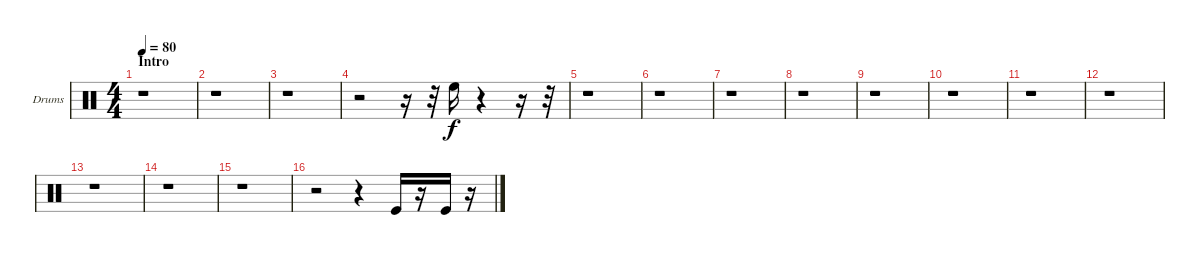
\bracketExtendMode groupsimilarinstruments
\firstSystemTrackNameOrientation horizontal
\otherSystemsTrackNameOrientation horizontal
\track ("Drumkit" "Drums") {instrument percussion}
\staff {score}
\articulation defaults
\ts (4 4)
\beaming (8 2 2 2 2)
\section ("" "Intro")
\tempo 80
\clef neutral
\ks c
r.1{dy f} |
r.1 |
r.1 |
r.2 r.16 r.32 "High Floor Tom (hit)".16 r.4 r.16 r.32 |
r.1 |
r.1 |
r.1 |
r.1 |
r.1 |
r.1 |
r.1 |
r.1 |
r.1 |
r.1 |
r.1 |
r.2 r.4 "Kick (hit)".16 r.16 "Kick (hit)".16 r.16
